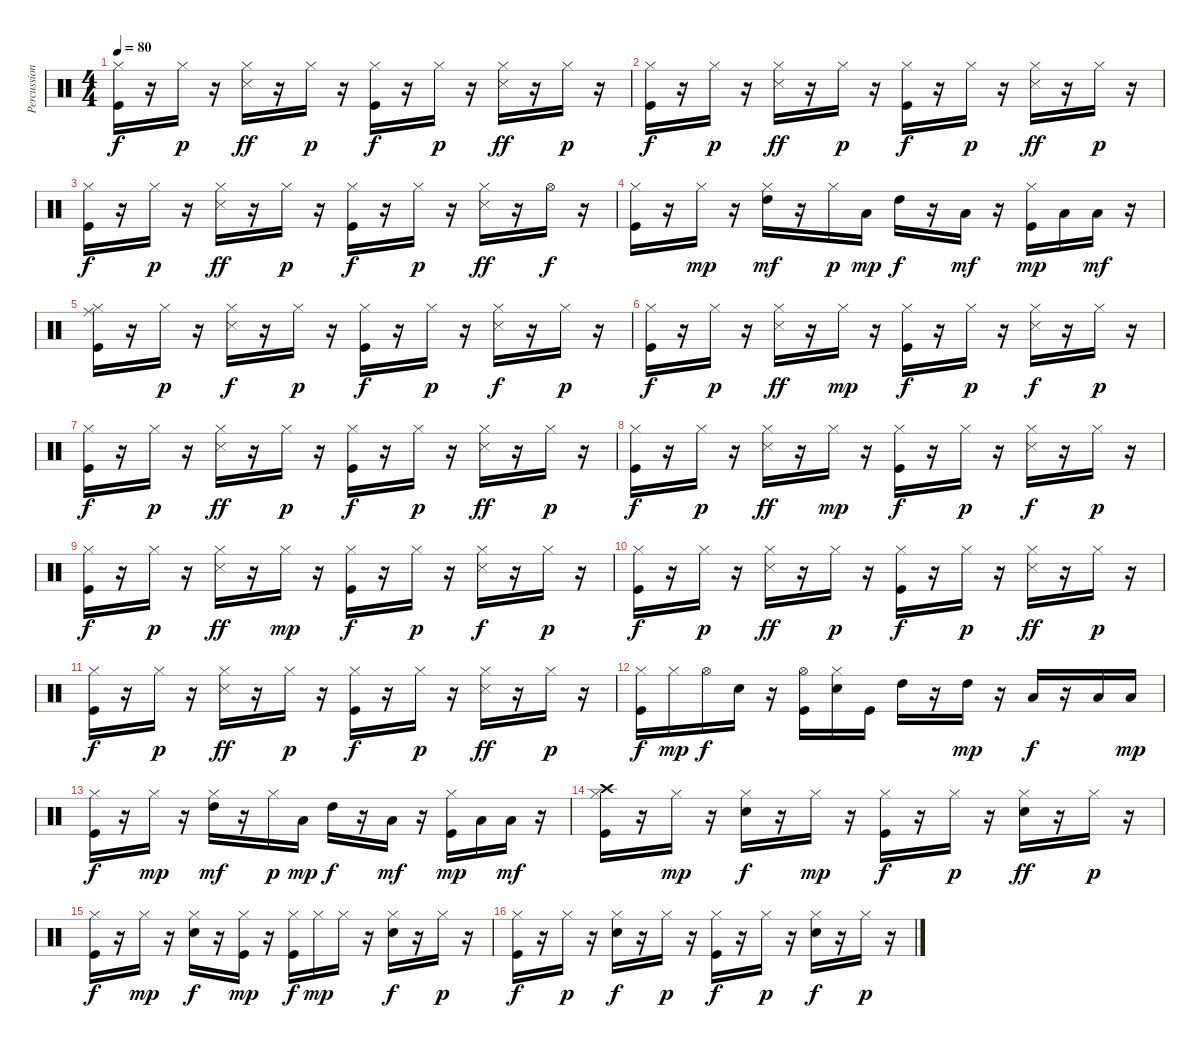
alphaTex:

\track ("Percussion" "Percussion") {instrument percussion}
\staff {score}
\articulation defaults
\ts (4 4)
\tempo 80
\clef neutral
\ks c
("Kick (hit)" "Hi-Hat (closed)").16{dy f} r.16 "Hi-Hat (closed)".16{dy p} r.16 ("Hi-Hat (closed)" "Snare (side stick) 3").16{dy ff} r.16 "Hi-Hat (closed)".16{dy p} r.16 ("Kick (hit)" "Hi-Hat (closed)").16{dy f} r.16 "Hi-Hat (closed)".16{dy p} r.16 ("Hi-Hat (closed)" "Snare (side stick) 3").16{dy ff} r.16 "Hi-Hat (closed)".16{dy p} r.16 |
("Kick (hit)" "Hi-Hat (closed)").16{dy f} r.16 "Hi-Hat (closed)".16{dy p} r.16 ("Hi-Hat (closed)" "Snare (side stick) 3").16{dy ff} r.16 "Hi-Hat (closed)".16{dy p} r.16 ("Kick (hit)" "Hi-Hat (closed)").16{dy f} r.16 "Hi-Hat (closed)".16{dy p} r.16 ("Hi-Hat (closed)" "Snare (side stick) 3").16{dy ff} r.16 "Hi-Hat (closed)".16{dy p} r.16 |
("Kick (hit)" "Hi-Hat (closed)").16{dy f} r.16 "Hi-Hat (closed)".16{dy p} r.16 ("Hi-Hat (closed)" "Snare (side stick) 3").16{dy ff} r.16 "Hi-Hat (closed)".16{dy p} r.16 ("Kick (hit)" "Hi-Hat (closed)").16{dy f} r.16 "Hi-Hat (closed)".16{dy p} r.16 ("Hi-Hat (closed)" "Snare (side stick) 3").16{dy ff} r.16 "Hi-Hat (open)".16{dy f} r.16 |
("Kick (hit)" "Hi-Hat (closed)").16 r.16 "Hi-Hat (closed)".16{dy mp} r.16 ("Hi-Hat (closed)" "High Tom (hit)").16{dy mf} r.16 "Hi-Hat (closed)".16{dy p} "Low Tom (hit)".16{dy mp} "High Tom (hit)".16{dy f} r.16 "Low Tom (hit)".16{dy mf} r.16 ("Kick (hit)" "Hi-Hat (closed)").16{dy mp} "Low Tom (hit)".16 "Low Floor Tom (hit)".16{dy mf} r.16 |
("Kick (hit)" "Hi-Hat (closed)" "Ride (middle)").16 r.16 "Hi-Hat (closed)".16{dy p} r.16 ("Hi-Hat (closed)" "Snare (side stick) 3").16{dy f} r.16 "Hi-Hat (closed)".16{dy p} r.16 ("Kick (hit)" "Hi-Hat (closed)").16{dy f} r.16 "Hi-Hat (closed)".16{dy p} r.16 ("Hi-Hat (closed)" "Snare (side stick) 3").16{dy f} r.16 "Hi-Hat (closed)".16{dy p} r.16 |
("Kick (hit)" "Hi-Hat (closed)").16{dy f} r.16 "Hi-Hat (closed)".16{dy p} r.16 ("Hi-Hat (closed)" "Snare (side stick) 3").16{dy ff} r.16 "Hi-Hat (closed)".16{dy mp} r.16 ("Kick (hit)" "Hi-Hat (closed)").16{dy f} r.16 "Hi-Hat (closed)".16{dy p} r.16 ("Hi-Hat (closed)" "Snare (side stick) 3").16{dy f} r.16 "Hi-Hat (closed)".16{dy p} r.16 |
("Kick (hit)" "Hi-Hat (closed)").16{dy f} r.16 "Hi-Hat (closed)".16{dy p} r.16 ("Hi-Hat (closed)" "Snare (side stick) 3").16{dy ff} r.16 "Hi-Hat (closed)".16{dy p} r.16 ("Kick (hit)" "Hi-Hat (closed)").16{dy f} r.16 "Hi-Hat (closed)".16{dy p} r.16 ("Hi-Hat (closed)" "Snare (side stick) 3").16{dy ff} r.16 "Hi-Hat (closed)".16{dy p} r.16 |
("Kick (hit)" "Hi-Hat (closed)").16{dy f} r.16 "Hi-Hat (closed)".16{dy p} r.16 ("Hi-Hat (closed)" "Snare (side stick) 3").16{dy ff} r.16 "Hi-Hat (closed)".16{dy mp} r.16 ("Kick (hit)" "Hi-Hat (closed)").16{dy f} r.16 "Hi-Hat (closed)".16{dy p} r.16 ("Hi-Hat (closed)" "Snare (side stick) 3").16{dy f} r.16 "Hi-Hat (closed)".16{dy p} r.16 |
("Kick (hit)" "Hi-Hat (closed)").16{dy f} r.16 "Hi-Hat (closed)".16{dy p} r.16 ("Hi-Hat (closed)" "Snare (side stick) 3").16{dy ff} r.16 "Hi-Hat (closed)".16{dy mp} r.16 ("Kick (hit)" "Hi-Hat (closed)").16{dy f} r.16 "Hi-Hat (closed)".16{dy p} r.16 ("Hi-Hat (closed)" "Snare (side stick) 3").16{dy f} r.16 "Hi-Hat (closed)".16{dy p} r.16 |
("Kick (hit)" "Hi-Hat (closed)").16{dy f} r.16 "Hi-Hat (closed)".16{dy p} r.16 ("Hi-Hat (closed)" "Snare (side stick) 3").16{dy ff} r.16 "Hi-Hat (closed)".16{dy p} r.16 ("Kick (hit)" "Hi-Hat (closed)").16{dy f} r.16 "Hi-Hat (closed)".16{dy p} r.16 ("Hi-Hat (closed)" "Snare (side stick) 3").16{dy ff} r.16 "Hi-Hat (closed)".16{dy p} r.16 |
("Kick (hit)" "Hi-Hat (closed)").16{dy f} r.16 "Hi-Hat (closed)".16{dy p} r.16 ("Hi-Hat (closed)" "Snare (side stick) 3").16{dy ff} r.16 "Hi-Hat (closed)".16{dy p} r.16 ("Kick (hit)" "Hi-Hat (closed)").16{dy f} r.16 "Hi-Hat (closed)".16{dy p} r.16 ("Hi-Hat (closed)" "Snare (side stick) 3").16{dy ff} r.16 "Hi-Hat (closed)".16{dy p} r.16 |
("Kick (hit)" "Hi-Hat (closed)").16{dy f} "Hi-Hat (closed)".16{dy mp} "Hi-Hat (open)".16{dy f} "Snare (hit) 2".16 r.16 ("Kick (hit)" "Hi-Hat (open)").16 ("Snare (hit) 2" "Hi-Hat (closed)").16 "Kick (hit)".16 "High Tom (hit)".16 r.16 "High Tom (hit)".16{dy mp} r.16 "Low Tom (hit)".16{dy f} r.16 "Low Floor Tom (hit)".16 "Low Floor Tom (hit)".16{dy mp} |
("Kick (hit)" "Hi-Hat (closed)").16{dy f} r.16 "Hi-Hat (closed)".16{dy mp} r.16 ("Hi-Hat (closed)" "High Tom (hit)").16{dy mf} r.16 "Hi-Hat (closed)".16{dy p} "Low Tom (hit)".16{dy mp} "High Tom (hit)".16{dy f} r.16 "Low Tom (hit)".16{dy mf} r.16 ("Kick (hit)" "Hi-Hat (closed)").16{dy mp} "Low Tom (hit)".16 "Low Floor Tom (hit)".16{dy mf} r.16 |
("Kick (hit)" "Hi-Hat (closed)" "Crash high (hit)").16 r.16 "Hi-Hat (closed)".16{dy mp} r.16 ("Snare (hit) 2" "Hi-Hat (closed)").16{dy f} r.16 "Hi-Hat (closed)".16{dy mp} r.16 ("Kick (hit)" "Hi-Hat (closed)").16{dy f} r.16 "Hi-Hat (closed)".16{dy p} r.16 ("Snare (hit) 2" "Hi-Hat (closed)").16{dy ff} r.16 "Hi-Hat (closed)".16{dy p} r.16 |
("Kick (hit)" "Hi-Hat (closed)").16{dy f} r.16 "Hi-Hat (closed)".16{dy mp} r.16 ("Snare (hit) 2" "Hi-Hat (closed)").16{dy f} r.16 ("Kick (hit)" "Hi-Hat (closed)").16{dy mp} r.16 ("Kick (hit)" "Hi-Hat (closed)").16{dy f} "Hi-Hat (closed)".16{dy mp} "Hi-Hat (closed)".16 r.16 ("Snare (hit) 2" "Hi-Hat (closed)").16{dy f} r.16 "Hi-Hat (closed)".16{dy p} r.16 |
("Kick (hit)" "Hi-Hat (closed)").16{dy f} r.16 "Hi-Hat (closed)".16{dy p} r.16 ("Snare (hit) 2" "Hi-Hat (closed)").16{dy f} r.16 "Hi-Hat (closed)".16{dy p} r.16 ("Kick (hit)" "Hi-Hat (closed)").16{dy f} r.16 "Hi-Hat (closed)".16{dy p} r.16 ("Snare (hit) 2" "Hi-Hat (closed)").16{dy f} r.16 "Hi-Hat (closed)".16{dy p} r.16
